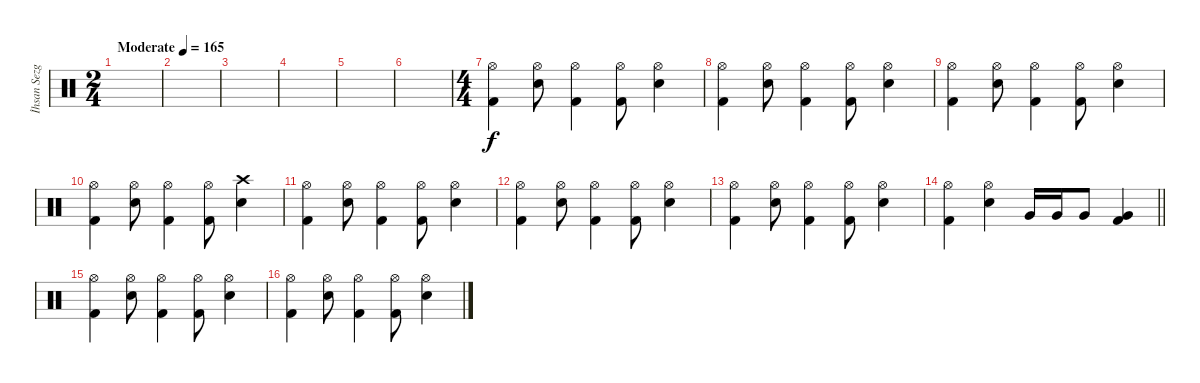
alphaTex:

\track ("İhsan Sezgin" "İhsan Sezg") {instrument percussion}
\staff {score}
\articulation defaults
\ts (2 4)
\tempo (165 "Moderate")
\clef neutral
\ks c
|
|
|
|
|
|
\ts (4 4)
("Hi-Hat (open)" "Kick (hit) 2").4 ("Snare (hit) 2" "Hi-Hat (open)").8 ("Hi-Hat (open)" "Kick (hit) 2").4 ("Hi-Hat (open)" "Kick (hit) 2").8 ("Snare (hit) 2" "Hi-Hat (open)").4 |
("Hi-Hat (open)" "Kick (hit) 2").4 ("Snare (hit) 2" "Hi-Hat (open)").8 ("Hi-Hat (open)" "Kick (hit) 2").4 ("Hi-Hat (open)" "Kick (hit) 2").8 ("Snare (hit) 2" "Hi-Hat (open)").4 |
("Hi-Hat (open)" "Kick (hit) 2").4 ("Snare (hit) 2" "Hi-Hat (open)").8 ("Hi-Hat (open)" "Kick (hit) 2").4 ("Hi-Hat (open)" "Kick (hit) 2").8 ("Snare (hit) 2" "Hi-Hat (open)").4 |
("Hi-Hat (open)" "Kick (hit) 2").4 ("Snare (hit) 2" "Hi-Hat (open)").8 ("Hi-Hat (open)" "Kick (hit) 2").4 ("Hi-Hat (open)" "Kick (hit) 2").8 ("Snare (hit) 2" "Crash high (hit)").4 |
("Hi-Hat (open)" "Kick (hit) 2").4 ("Snare (hit) 2" "Hi-Hat (open)").8 ("Hi-Hat (open)" "Kick (hit) 2").4 ("Hi-Hat (open)" "Kick (hit) 2").8 ("Snare (hit) 2" "Hi-Hat (open)").4 |
("Hi-Hat (open)" "Kick (hit) 2").4 ("Snare (hit) 2" "Hi-Hat (open)").8 ("Hi-Hat (open)" "Kick (hit) 2").4 ("Hi-Hat (open)" "Kick (hit) 2").8 ("Snare (hit) 2" "Hi-Hat (open)").4 |
("Hi-Hat (open)" "Kick (hit) 2").4 ("Snare (hit) 2" "Hi-Hat (open)").8 ("Hi-Hat (open)" "Kick (hit) 2").4 ("Hi-Hat (open)" "Kick (hit) 2").8 ("Snare (hit) 2" "Hi-Hat (open)").4 |
\barLineRight lightlight
("Hi-Hat (open)" "Kick (hit) 2").4 ("Snare (hit) 2" "Hi-Hat (open)").4 "Very Low Tom (hit)".16 "Very Low Tom (hit)".16 "Very Low Tom (hit)".8 ("Kick (hit) 2" "Very Low Tom (hit)").4 |
("Hi-Hat (open)" "Kick (hit) 2").4 ("Snare (hit) 2" "Hi-Hat (open)").8 ("Hi-Hat (open)" "Kick (hit) 2").4 ("Hi-Hat (open)" "Kick (hit) 2").8 ("Snare (hit) 2" "Hi-Hat (open)").4 |
("Hi-Hat (open)" "Kick (hit) 2").4 ("Snare (hit) 2" "Hi-Hat (open)").8 ("Hi-Hat (open)" "Kick (hit) 2").4 ("Hi-Hat (open)" "Kick (hit) 2").8 ("Snare (hit) 2" "Hi-Hat (open)").4
